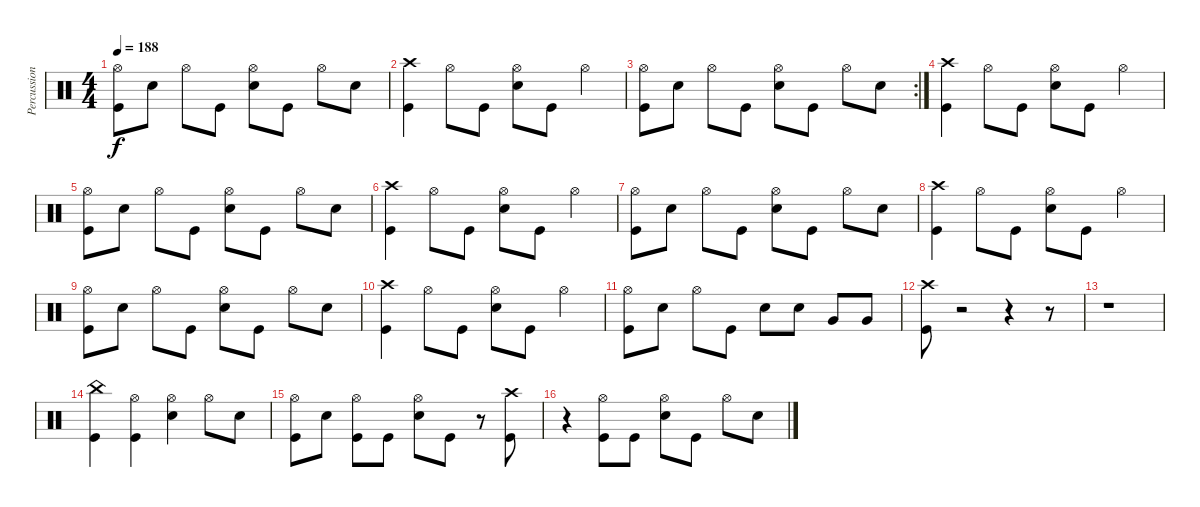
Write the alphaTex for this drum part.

\track ("Percussion" "Percussion") {instrument percussion}
\staff {score}
\articulation defaults
\ts (4 4)
\tempo 188
\clef neutral
\ks c
("Kick (hit)" "Hi-Hat (open)").8{dy f} "Snare (hit) 2".8 "Hi-Hat (open)".8 "Kick (hit)".8 ("Snare (hit) 2" "Hi-Hat (open)").8 "Kick (hit)".8 "Hi-Hat (open)".8 "Snare (hit) 2".8 |
("Kick (hit)" "Crash high (hit)").4 "Hi-Hat (open)".8 "Kick (hit)".8 ("Snare (hit) 2" "Hi-Hat (open)").8 "Kick (hit)".8 "Hi-Hat (open)".4 |
\rc 2
("Kick (hit)" "Hi-Hat (open)").8 "Snare (hit) 2".8 "Hi-Hat (open)".8 "Kick (hit)".8 ("Snare (hit) 2" "Hi-Hat (open)").8 "Kick (hit)".8 "Hi-Hat (open)".8 "Snare (hit) 2".8 |
("Kick (hit)" "Crash high (hit)").4 "Hi-Hat (open)".8 "Kick (hit)".8 ("Snare (hit) 2" "Hi-Hat (open)").8 "Kick (hit)".8 "Hi-Hat (open)".4 |
("Kick (hit)" "Hi-Hat (open)").8 "Snare (hit) 2".8 "Hi-Hat (open)".8 "Kick (hit)".8 ("Snare (hit) 2" "Hi-Hat (open)").8 "Kick (hit)".8 "Hi-Hat (open)".8 "Snare (hit) 2".8 |
("Kick (hit)" "Crash high (hit)").4 "Hi-Hat (open)".8 "Kick (hit)".8 ("Snare (hit) 2" "Hi-Hat (open)").8 "Kick (hit)".8 "Hi-Hat (open)".4 |
("Kick (hit)" "Hi-Hat (open)").8 "Snare (hit) 2".8 "Hi-Hat (open)".8 "Kick (hit)".8 ("Snare (hit) 2" "Hi-Hat (open)").8 "Kick (hit)".8 "Hi-Hat (open)".8 "Snare (hit) 2".8 |
("Kick (hit)" "Crash high (hit)").4 "Hi-Hat (open)".8 "Kick (hit)".8 ("Snare (hit) 2" "Hi-Hat (open)").8 "Kick (hit)".8 "Hi-Hat (open)".4 |
("Kick (hit)" "Hi-Hat (open)").8 "Snare (hit) 2".8 "Hi-Hat (open)".8 "Kick (hit)".8 ("Snare (hit) 2" "Hi-Hat (open)").8 "Kick (hit)".8 "Hi-Hat (open)".8 "Snare (hit) 2".8 |
("Kick (hit)" "Crash high (hit)").4 "Hi-Hat (open)".8 "Kick (hit)".8 ("Snare (hit) 2" "Hi-Hat (open)").8 "Kick (hit)".8 "Hi-Hat (open)".4 |
("Kick (hit)" "Hi-Hat (open)").8 "Snare (hit) 2".8 "Hi-Hat (open)".8 "Kick (hit)".8 "Snare (hit) 2".8 "Snare (hit) 2".8 "Very Low Tom (hit)".8 "Very Low Tom (hit)".8 |
("Crash high (hit)" "Kick (hit)").8 r.2 r.4 r.8 |
r.1 |
("Kick (hit)" "China (hit)").4 ("Kick (hit)" "Hi-Hat (open)").4 ("Snare (hit) 2" "Hi-Hat (open)").4 "Hi-Hat (open)".8 "Snare (hit) 2".8 |
("Kick (hit)" "Hi-Hat (open)").8 "Snare (hit) 2".8 ("Kick (hit)" "Hi-Hat (open)").8 "Kick (hit)".8 ("Snare (hit) 2" "Hi-Hat (open)").8 "Kick (hit)".8 r.8 ("Kick (hit)" "Crash high (hit)").8 |
r.4 ("Kick (hit)" "Hi-Hat (open)").8 "Kick (hit)".8 ("Snare (hit) 2" "Hi-Hat (open)").8 "Kick (hit)".8 "Hi-Hat (open)".8 "Snare (hit) 2".8
